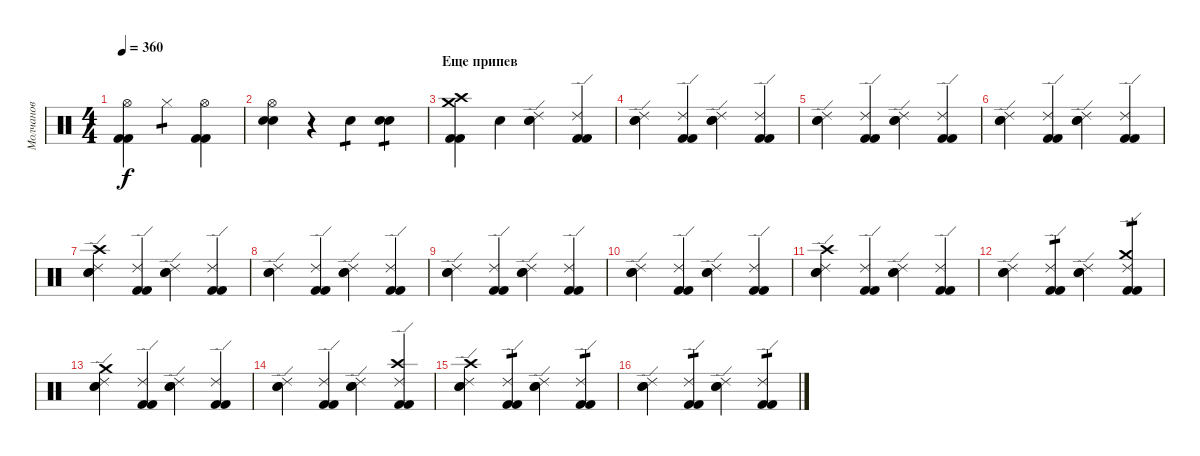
\track ("Молчанов" "Молчанов") {instrument percussion}
\staff {score}
\articulation defaults
\ts (4 4)
\tempo 360
\clef neutral
\ks c
("Kick (hit) 2" "Kick (hit) 2" "Hi-Hat (open)").4{dy f} "Hi-Hat (closed)".4{tp 1} ("Kick (hit) 2" "Kick (hit) 2" "Hi-Hat (open)").4 |
("Electric Snare (hit)" "Electric Snare (hit)" "Hi-Hat (open)").4 r.4 "Electric Snare (hit)".4{tp 1} ("Electric Snare (hit)" "Electric Snare (hit)").4{tp 1} |
\section ("" "Еще припев")
("Kick (hit) 2" "Kick (hit) 2" "Crash high (hit)" "Crash medium (hit)").4 "Snare (hit)"{x}.4 ("Ride (edge) 2" "Electric Snare (hit)" "Electric Snare (hit)").4 ("Ride (edge) 2" "Kick (hit) 2" "Kick (hit) 2").4 |
("Ride (edge) 2" "Electric Snare (hit)" "Electric Snare (hit)").4 ("Ride (edge) 2" "Kick (hit) 2" "Kick (hit) 2").4 ("Ride (edge) 2" "Electric Snare (hit)" "Electric Snare (hit)").4 ("Ride (edge) 2" "Kick (hit) 2" "Kick (hit) 2").4 |
("Ride (edge) 2" "Electric Snare (hit)" "Electric Snare (hit)").4 ("Ride (edge) 2" "Kick (hit) 2" "Kick (hit) 2").4 ("Ride (edge) 2" "Electric Snare (hit)" "Electric Snare (hit)").4 ("Ride (edge) 2" "Kick (hit) 2" "Kick (hit) 2").4 |
("Ride (edge) 2" "Electric Snare (hit)" "Electric Snare (hit)").4 ("Ride (edge) 2" "Kick (hit) 2" "Kick (hit) 2").4 ("Ride (edge) 2" "Electric Snare (hit)" "Electric Snare (hit)").4 ("Ride (edge) 2" "Kick (hit) 2" "Kick (hit) 2").4 |
("Ride (edge) 2" "Electric Snare (hit)" "Electric Snare (hit)" "Crash high (hit)").4 ("Ride (edge) 2" "Kick (hit) 2" "Kick (hit) 2").4 ("Ride (edge) 2" "Electric Snare (hit)" "Electric Snare (hit)").4 ("Ride (edge) 2" "Kick (hit) 2" "Kick (hit) 2").4 |
("Ride (edge) 2" "Electric Snare (hit)" "Electric Snare (hit)").4 ("Ride (edge) 2" "Kick (hit) 2" "Kick (hit) 2").4 ("Ride (edge) 2" "Electric Snare (hit)" "Electric Snare (hit)").4 ("Ride (edge) 2" "Kick (hit) 2" "Kick (hit) 2").4 |
("Ride (edge) 2" "Electric Snare (hit)" "Electric Snare (hit)").4 ("Ride (edge) 2" "Kick (hit) 2" "Kick (hit) 2").4 ("Ride (edge) 2" "Electric Snare (hit)" "Electric Snare (hit)").4 ("Ride (edge) 2" "Kick (hit) 2" "Kick (hit) 2").4 |
("Ride (edge) 2" "Electric Snare (hit)" "Electric Snare (hit)").4 ("Ride (edge) 2" "Kick (hit) 2" "Kick (hit) 2").4 ("Ride (edge) 2" "Electric Snare (hit)" "Electric Snare (hit)").4 ("Ride (edge) 2" "Kick (hit) 2" "Kick (hit) 2").4 |
("Ride (edge) 2" "Electric Snare (hit)" "Electric Snare (hit)" "Crash high (hit)").4 ("Ride (edge) 2" "Kick (hit) 2" "Kick (hit) 2").4 ("Ride (edge) 2" "Electric Snare (hit)" "Electric Snare (hit)").4 ("Ride (edge) 2" "Kick (hit) 2" "Kick (hit) 2").4 |
("Ride (edge) 2" "Electric Snare (hit)" "Electric Snare (hit)").4 ("Ride (edge) 2" "Kick (hit) 2" "Kick (hit) 2").4{tp 1} ("Ride (edge) 2" "Electric Snare (hit)" "Electric Snare (hit)").4 ("Ride (edge) 2" "Kick (hit) 2" "Kick (hit) 2" "Crash medium (hit)").4{tp 1} |
("Ride (edge) 2" "Electric Snare (hit)" "Electric Snare (hit)" "Crash medium (hit)").4 ("Ride (edge) 2" "Kick (hit) 2" "Kick (hit) 2").4 ("Ride (edge) 2" "Electric Snare (hit)" "Electric Snare (hit)").4 ("Ride (edge) 2" "Kick (hit) 2" "Kick (hit) 2").4 |
("Ride (edge) 2" "Electric Snare (hit)" "Electric Snare (hit)").4 ("Ride (edge) 2" "Kick (hit) 2" "Kick (hit) 2").4 ("Ride (edge) 2" "Electric Snare (hit)" "Electric Snare (hit)").4 ("Ride (edge) 2" "Kick (hit) 2" "Kick (hit) 2" "Crash high (hit)").4 |
("Ride (edge) 2" "Electric Snare (hit)" "Electric Snare (hit)" "Crash high (hit)").4 ("Ride (edge) 2" "Kick (hit) 2" "Kick (hit) 2").4{tp 1} ("Ride (edge) 2" "Electric Snare (hit)" "Electric Snare (hit)").4 ("Ride (edge) 2" "Kick (hit) 2" "Kick (hit) 2").4{tp 1} |
("Ride (edge) 2" "Electric Snare (hit)" "Electric Snare (hit)").4 ("Ride (edge) 2" "Kick (hit) 2" "Kick (hit) 2").4{tp 1} ("Ride (edge) 2" "Electric Snare (hit)" "Electric Snare (hit)").4 ("Ride (edge) 2" "Kick (hit) 2" "Kick (hit) 2").4{tp 1}
